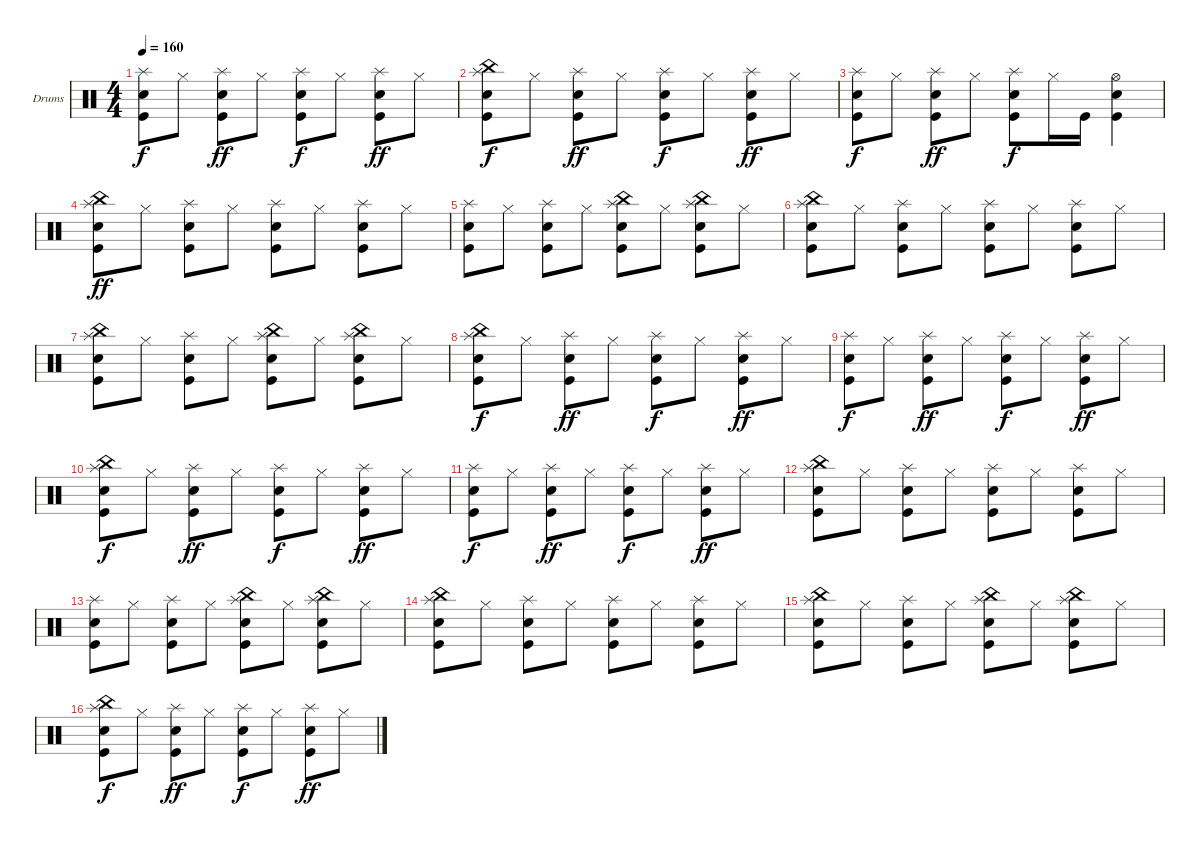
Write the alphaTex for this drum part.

\bracketExtendMode groupsimilarinstruments
\firstSystemTrackNameOrientation horizontal
\otherSystemsTrackNameOrientation horizontal
\track ("Drumkit" "Drums") {instrument percussion}
\staff {score}
\articulation defaults
\ts (4 4)
\tempo 160
\clef neutral
\ks c
("Kick (hit)" "Snare (hit) 2" "Splash (hit)").8{dy f} "Hi-Hat (closed)".8 ("Kick (hit)" "Snare (hit) 2" "Splash (hit)").8{dy ff} "Hi-Hat (closed)".8 ("Kick (hit)" "Snare (hit) 2" "Splash (hit)").8{dy f} "Hi-Hat (closed)".8 ("Kick (hit)" "Snare (hit) 2" "Splash (hit)").8{dy ff} "Hi-Hat (closed)".8 |
("Kick (hit)" "Snare (hit) 2" "Splash (hit)" "China (hit)").8{dy f} "Hi-Hat (closed)".8 ("Kick (hit)" "Snare (hit) 2" "Splash (hit)").8{dy ff} "Hi-Hat (closed)".8 ("Kick (hit)" "Snare (hit) 2" "Splash (hit)").8{dy f} "Hi-Hat (closed)".8 ("Kick (hit)" "Snare (hit) 2" "Splash (hit)").8{dy ff} "Hi-Hat (closed)".8 |
("Kick (hit)" "Snare (hit) 2" "Splash (hit)").8{dy f} "Hi-Hat (closed)".8 ("Kick (hit)" "Snare (hit) 2" "Splash (hit)").8{dy ff} "Hi-Hat (closed)".8 ("Kick (hit)" "Snare (hit) 2" "Splash (hit)").8{dy f} "Hi-Hat (closed)".16 "Kick (hit)".16 ("Kick (hit)" "Snare (hit) 2" "Hi-Hat (open)").4 |
("Kick (hit)" "Snare (hit) 2" "China (hit)" "Splash (hit)").8{dy ff} "Hi-Hat (closed)".8 ("Kick (hit)" "Snare (hit) 2" "Splash (hit)").8 "Hi-Hat (closed)".8 ("Kick (hit)" "Snare (hit) 2" "Splash (hit)").8 "Hi-Hat (closed)".8 ("Kick (hit)" "Snare (hit) 2" "Splash (hit)").8 "Hi-Hat (closed)".8 |
("Kick (hit)" "Snare (hit) 2" "Splash (hit)").8 "Hi-Hat (closed)".8 ("Kick (hit)" "Snare (hit) 2" "Splash (hit)").8 "Hi-Hat (closed)".8 ("Kick (hit)" "Snare (hit) 2" "Splash (hit)" "China (hit)").8 "Hi-Hat (closed)".8 ("Kick (hit)" "Snare (hit) 2" "Splash (hit)" "China (hit)").8 "Hi-Hat (closed)".8 |
("Kick (hit)" "Snare (hit) 2" "Splash (hit)" "China (hit)").8 "Hi-Hat (closed)".8 ("Kick (hit)" "Snare (hit) 2" "Splash (hit)").8 "Hi-Hat (closed)".8 ("Kick (hit)" "Snare (hit) 2" "Splash (hit)").8 "Hi-Hat (closed)".8 ("Kick (hit)" "Snare (hit) 2" "Splash (hit)").8 "Hi-Hat (closed)".8 |
("Kick (hit)" "Snare (hit) 2" "Splash (hit)" "China (hit)").8 "Hi-Hat (closed)".8 ("Kick (hit)" "Snare (hit) 2" "Splash (hit)").8 "Hi-Hat (closed)".8 ("Kick (hit)" "Snare (hit) 2" "Splash (hit)" "China (hit)").8 "Hi-Hat (closed)".8 ("Kick (hit)" "Snare (hit) 2" "Splash (hit)" "China (hit)").8 "Hi-Hat (closed)".8 |
("Kick (hit)" "Snare (hit) 2" "Splash (hit)" "China (hit)").8{dy f} "Hi-Hat (closed)".8 ("Kick (hit)" "Snare (hit) 2" "Splash (hit)").8{dy ff} "Hi-Hat (closed)".8 ("Kick (hit)" "Snare (hit) 2" "Splash (hit)").8{dy f} "Hi-Hat (closed)".8 ("Kick (hit)" "Snare (hit) 2" "Splash (hit)").8{dy ff} "Hi-Hat (closed)".8 |
("Kick (hit)" "Snare (hit) 2" "Splash (hit)").8{dy f} "Hi-Hat (closed)".8 ("Kick (hit)" "Snare (hit) 2" "Splash (hit)").8{dy ff} "Hi-Hat (closed)".8 ("Kick (hit)" "Snare (hit) 2" "Splash (hit)").8{dy f} "Hi-Hat (closed)".8 ("Kick (hit)" "Snare (hit) 2" "Splash (hit)").8{dy ff} "Hi-Hat (closed)".8 |
("Kick (hit)" "Snare (hit) 2" "Splash (hit)" "China (hit)").8{dy f} "Hi-Hat (closed)".8 ("Kick (hit)" "Snare (hit) 2" "Splash (hit)").8{dy ff} "Hi-Hat (closed)".8 ("Kick (hit)" "Snare (hit) 2" "Splash (hit)").8{dy f} "Hi-Hat (closed)".8 ("Kick (hit)" "Snare (hit) 2" "Splash (hit)").8{dy ff} "Hi-Hat (closed)".8 |
("Kick (hit)" "Snare (hit) 2" "Splash (hit)").8{dy f} "Hi-Hat (closed)".8 ("Kick (hit)" "Snare (hit) 2" "Splash (hit)").8{dy ff} "Hi-Hat (closed)".8 ("Kick (hit)" "Snare (hit) 2" "Splash (hit)").8{dy f} "Hi-Hat (closed)".8 ("Kick (hit)" "Snare (hit) 2" "Splash (hit)").8{dy ff} "Hi-Hat (closed)".8 |
("Kick (hit)" "Snare (hit) 2" "China (hit)" "Splash (hit)").8 "Hi-Hat (closed)".8 ("Kick (hit)" "Snare (hit) 2" "Splash (hit)").8 "Hi-Hat (closed)".8 ("Kick (hit)" "Snare (hit) 2" "Splash (hit)").8 "Hi-Hat (closed)".8 ("Kick (hit)" "Snare (hit) 2" "Splash (hit)").8 "Hi-Hat (closed)".8 |
("Kick (hit)" "Snare (hit) 2" "Splash (hit)").8 "Hi-Hat (closed)".8 ("Kick (hit)" "Snare (hit) 2" "Splash (hit)").8 "Hi-Hat (closed)".8 ("Kick (hit)" "Snare (hit) 2" "Splash (hit)" "China (hit)").8 "Hi-Hat (closed)".8 ("Kick (hit)" "Snare (hit) 2" "Splash (hit)" "China (hit)").8 "Hi-Hat (closed)".8 |
("Kick (hit)" "Snare (hit) 2" "Splash (hit)" "China (hit)").8 "Hi-Hat (closed)".8 ("Kick (hit)" "Snare (hit) 2" "Splash (hit)").8 "Hi-Hat (closed)".8 ("Kick (hit)" "Snare (hit) 2" "Splash (hit)").8 "Hi-Hat (closed)".8 ("Kick (hit)" "Snare (hit) 2" "Splash (hit)").8 "Hi-Hat (closed)".8 |
("Kick (hit)" "Snare (hit) 2" "Splash (hit)" "China (hit)").8 "Hi-Hat (closed)".8 ("Kick (hit)" "Snare (hit) 2" "Splash (hit)").8 "Hi-Hat (closed)".8 ("Kick (hit)" "Snare (hit) 2" "Splash (hit)" "China (hit)").8 "Hi-Hat (closed)".8 ("Kick (hit)" "Snare (hit) 2" "Splash (hit)" "China (hit)").8 "Hi-Hat (closed)".8 |
("Kick (hit)" "Snare (hit) 2" "Splash (hit)" "China (hit)").8{dy f} "Hi-Hat (closed)".8 ("Kick (hit)" "Snare (hit) 2" "Splash (hit)").8{dy ff} "Hi-Hat (closed)".8 ("Kick (hit)" "Snare (hit) 2" "Splash (hit)").8{dy f} "Hi-Hat (closed)".8 ("Kick (hit)" "Snare (hit) 2" "Splash (hit)").8{dy ff} "Hi-Hat (closed)".8
